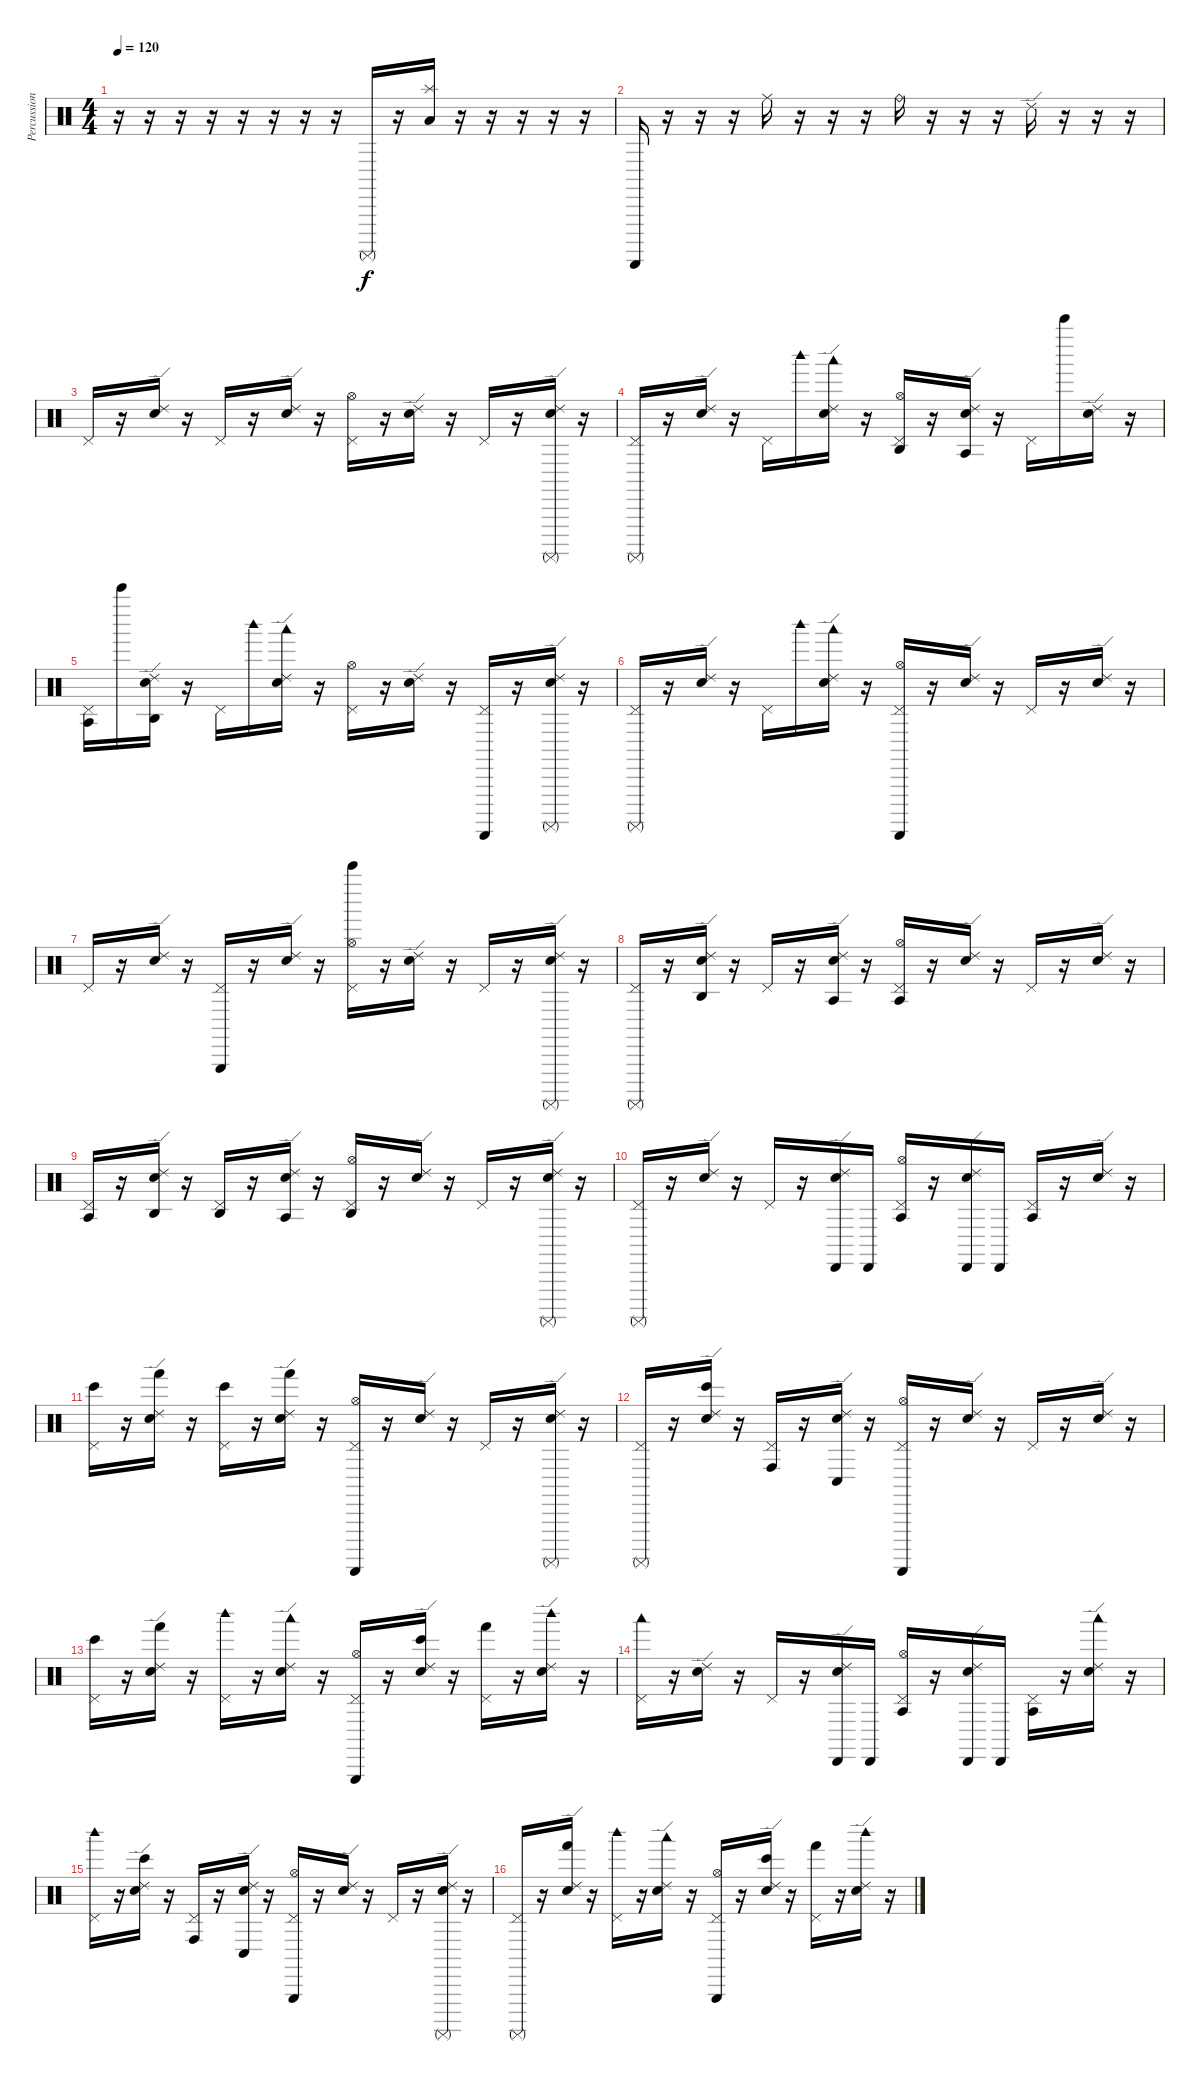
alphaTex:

\track ("Percussions" "Percussion") {instrument percussion}
\staff {score}
\articulation defaults
\ts (4 4)
\tempo 120
\clef neutral
\ks c
r.16{dy f} r.16 r.16 r.16 r.16 r.16 r.16 r.16 "Surdo (mute)".16 r.16 ("Splash (hit)" "Low Tom (hit)").16 r.16 r.16 r.16 r.16 r.16 |
"Guiro (scrap-return)".16 r.16 r.16 r.16 "Ride (middle)".16 r.16 r.16 r.16 "Ride (bell)".16 r.16 r.16 r.16 "Ride (edge) 2".16 r.16 r.16 r.16 |
"Pedal Hi-Hat (hit)".16 r.16 ("Ride (edge) 2" "Metronome (bell)").16 r.16 "Pedal Hi-Hat (hit)".16 r.16 ("Ride (edge) 2" "Metronome (bell)").16 r.16 ("Pedal Hi-Hat (hit)" "Hi-Hat (open)").16 r.16 ("Ride (edge) 2" "Metronome (bell)").16 r.16 "Pedal Hi-Hat (hit)".16 r.16 ("Surdo (mute)" "Ride (edge) 2" "Metronome (bell)").16 r.16 |
("Surdo (mute)" "Pedal Hi-Hat (hit)").16 r.16 ("Ride (edge) 2" "Metronome (bell)").16 r.16 "Pedal Hi-Hat (hit)".16 "Woodblock high (hit)".16 ("Woodblock low (hit)" "Ride (edge) 2" "Metronome (bell)").16 r.16 ("Agogo high (hit)" "Pedal Hi-Hat (hit)" "Hi-Hat (open)").16 r.16 ("Agogo tow (hit)" "Ride (edge) 2" "Metronome (bell)").16 r.16 "Pedal Hi-Hat (hit)".16 "Bell Tree (hit)".16 ("Ride (edge) 2" "Metronome (bell)").16 r.16 |
("Agogo tow (hit)" "Pedal Hi-Hat (hit)").16 "Bell Tree (hit)".16 ("Agogo high (hit)" "Ride (edge) 2" "Metronome (bell)").16 r.16 "Pedal Hi-Hat (hit)".16 "Woodblock high (hit)".16 ("Woodblock low (hit)" "Ride (edge) 2" "Metronome (bell)").16 r.16 ("Pedal Hi-Hat (hit)" "Hi-Hat (open)").16 r.16 ("Ride (edge) 2" "Metronome (bell)").16 r.16 ("Guiro (scrap-return)" "Pedal Hi-Hat (hit)").16 r.16 ("Surdo (mute)" "Ride (edge) 2" "Metronome (bell)").16 r.16 |
("Surdo (mute)" "Pedal Hi-Hat (hit)").16 r.16 ("Ride (edge) 2" "Metronome (bell)").16 r.16 "Pedal Hi-Hat (hit)".16 "Woodblock high (hit)".16 ("Woodblock low (hit)" "Ride (edge) 2" "Metronome (bell)").16 r.16 ("Guiro (scrap-return)" "Pedal Hi-Hat (hit)" "Hi-Hat (open)").16 r.16 ("Ride (edge) 2" "Metronome (bell)").16 r.16 "Pedal Hi-Hat (hit)".16 r.16 ("Ride (edge) 2" "Metronome (bell)").16 r.16 |
"Pedal Hi-Hat (hit)".16 r.16 ("Ride (edge) 2" "Metronome (bell)").16 r.16 ("Triangle (hit)" "Pedal Hi-Hat (hit)").16 r.16 ("Ride (edge) 2" "Metronome (bell)").16 r.16 ("Bell Tree (hit)" "Pedal Hi-Hat (hit)" "Hi-Hat (open)").16 r.16 ("Ride (edge) 2" "Metronome (bell)").16 r.16 "Pedal Hi-Hat (hit)".16 r.16 ("Surdo (mute)" "Ride (edge) 2" "Metronome (bell)").16 r.16 |
("Surdo (mute)" "Pedal Hi-Hat (hit)").16 r.16 ("Agogo high (hit)" "Ride (edge) 2" "Metronome (bell)").16 r.16 "Pedal Hi-Hat (hit)".16 r.16 ("Agogo tow (hit)" "Ride (edge) 2" "Metronome (bell)").16 r.16 ("Agogo tow (hit)" "Pedal Hi-Hat (hit)" "Hi-Hat (open)").16 r.16 ("Ride (edge) 2" "Metronome (bell)").16 r.16 "Pedal Hi-Hat (hit)".16 r.16 ("Ride (edge) 2" "Metronome (bell)").16 r.16 |
("Agogo tow (hit)" "Pedal Hi-Hat (hit)").16 r.16 ("Agogo high (hit)" "Ride (edge) 2" "Metronome (bell)").16 r.16 ("Agogo high (hit)" "Pedal Hi-Hat (hit)").16 r.16 ("Agogo tow (hit)" "Ride (edge) 2" "Metronome (bell)").16 r.16 ("Agogo high (hit)" "Pedal Hi-Hat (hit)" "Hi-Hat (open)").16 r.16 ("Ride (edge) 2" "Metronome (bell)").16 r.16 "Pedal Hi-Hat (hit)".16 r.16 ("Surdo (mute)" "Ride (edge) 2" "Metronome (bell)").16 r.16 |
("Surdo (mute)" "Pedal Hi-Hat (hit)").16 r.16 ("Ride (edge) 2" "Metronome (bell)").16 r.16 "Pedal Hi-Hat (hit)".16 r.16 ("Cabasa (hit)" "Ride (edge) 2" "Metronome (bell)").16 "Cabasa (hit)".16 ("Agogo tow (hit)" "Pedal Hi-Hat (hit)" "Hi-Hat (open)").16 r.16 ("Cabasa (hit)" "Ride (edge) 2" "Metronome (bell)").16 "Cabasa (hit)".16 ("Agogo tow (hit)" "Pedal Hi-Hat (hit)").16 r.16 ("Ride (edge) 2" "Metronome (bell)").16 r.16 |
("Bongo High (hit)" "Pedal Hi-Hat (hit)").16 r.16 ("Hand (hit)" "Ride (edge) 2" "Metronome (bell)").16 r.16 ("Bongo High (hit)" "Pedal Hi-Hat (hit)").16 r.16 ("Hand (hit)" "Ride (edge) 2" "Metronome (bell)").16 r.16 ("Guiro (scrap-return)" "Pedal Hi-Hat (hit)" "Hi-Hat (open)").16 r.16 ("Ride (edge) 2" "Metronome (bell)").16 r.16 "Pedal Hi-Hat (hit)".16 r.16 ("Surdo (mute)" "Ride (edge) 2" "Metronome (bell)").16 r.16 |
("Surdo (mute)" "Pedal Hi-Hat (hit)").16 r.16 ("Bongo High (hit)" "Ride (edge) 2" "Metronome (bell)").16 r.16 ("Conga high (hit)" "Pedal Hi-Hat (hit)").16 r.16 ("Conga low (hit)" "Ride (edge) 2" "Metronome (bell)").16 r.16 ("Guiro (scrap-return)" "Pedal Hi-Hat (hit)" "Hi-Hat (open)").16 r.16 ("Ride (edge) 2" "Metronome (bell)").16 r.16 "Pedal Hi-Hat (hit)".16 r.16 ("Ride (edge) 2" "Metronome (bell)").16 r.16 |
("Bongo High (hit)" "Pedal Hi-Hat (hit)").16 r.16 ("Hand (hit)" "Ride (edge) 2" "Metronome (bell)").16 r.16 ("Woodblock high (hit)" "Pedal Hi-Hat (hit)").16 r.16 ("Woodblock low (hit)" "Ride (edge) 2" "Metronome (bell)").16 r.16 ("Triangle (hit)" "Pedal Hi-Hat (hit)" "Hi-Hat (open)").16 r.16 ("Bongo High (hit)" "Ride (edge) 2" "Metronome (bell)").16 r.16 ("Hand (hit)" "Pedal Hi-Hat (hit)").16 r.16 ("Woodblock high (hit)" "Ride (edge) 2" "Metronome (bell)").16 r.16 |
("Woodblock low (hit)" "Pedal Hi-Hat (hit)").16 r.16 ("Ride (edge) 2" "Metronome (bell)").16 r.16 "Pedal Hi-Hat (hit)".16 r.16 ("Cabasa (hit)" "Ride (edge) 2" "Metronome (bell)").16 "Cabasa (hit)".16 ("Agogo tow (hit)" "Pedal Hi-Hat (hit)" "Hi-Hat (open)").16 r.16 ("Cabasa (hit)" "Ride (edge) 2" "Metronome (bell)").16 "Cabasa (hit)".16 ("Agogo tow (hit)" "Pedal Hi-Hat (hit)").16 r.16 ("Woodblock low (hit)" "Ride (edge) 2" "Metronome (bell)").16 r.16 |
("Woodblock high (hit)" "Pedal Hi-Hat (hit)").16 r.16 ("Bongo High (hit)" "Ride (edge) 2" "Metronome (bell)").16 r.16 ("Conga high (hit)" "Pedal Hi-Hat (hit)").16 r.16 ("Conga low (hit)" "Ride (edge) 2" "Metronome (bell)").16 r.16 ("Triangle (hit)" "Pedal Hi-Hat (hit)" "Hi-Hat (open)").16 r.16 ("Ride (edge) 2" "Metronome (bell)").16 r.16 "Pedal Hi-Hat (hit)".16 r.16 ("Surdo (mute)" "Ride (edge) 2" "Metronome (bell)").16 r.16 |
("Surdo (mute)" "Pedal Hi-Hat (hit)").16 r.16 ("Hand (hit)" "Ride (edge) 2" "Metronome (bell)").16 r.16 ("Woodblock high (hit)" "Pedal Hi-Hat (hit)").16 r.16 ("Woodblock low (hit)" "Ride (edge) 2" "Metronome (bell)").16 r.16 ("Triangle (hit)" "Pedal Hi-Hat (hit)" "Hi-Hat (open)").16 r.16 ("Bongo High (hit)" "Ride (edge) 2" "Metronome (bell)").16 r.16 ("Hand (hit)" "Pedal Hi-Hat (hit)").16 r.16 ("Woodblock high (hit)" "Ride (edge) 2" "Metronome (bell)").16 r.16
